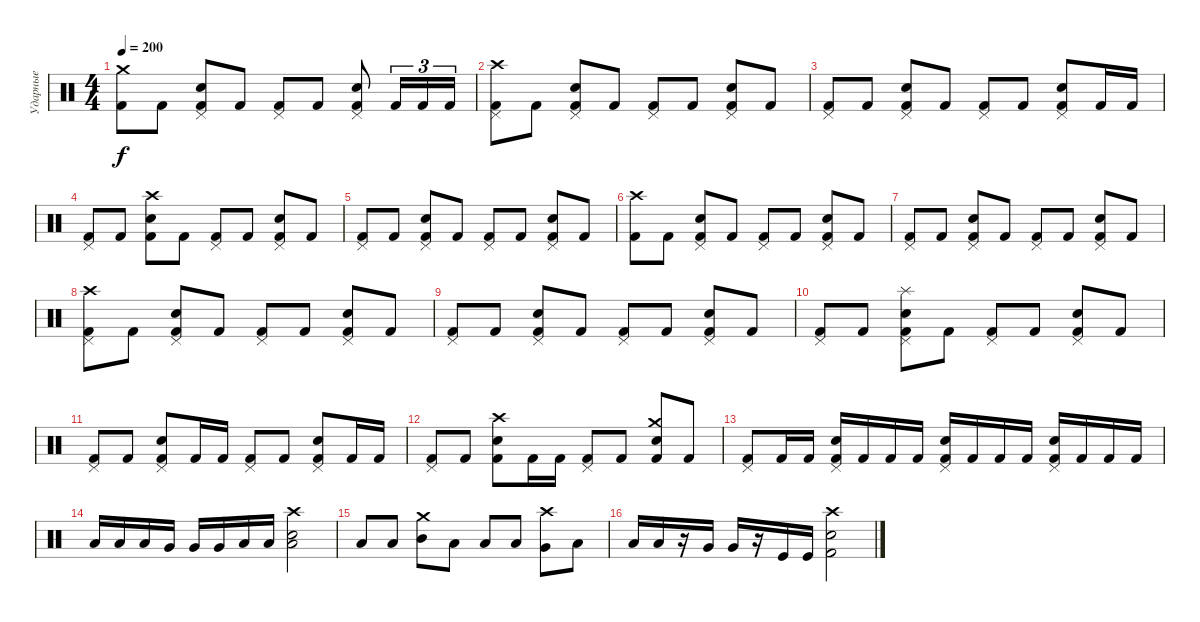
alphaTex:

\track ("Ударные" "Ударные") {instrument percussion}
\staff
\articulation defaults
\ts (4 4)
\tempo 200
\clef neutral
\ks c
("Kick (hit) 2" "Crash medium (hit)").8{dy f} "Kick (hit) 2".8 ("Snare (hit) 2" "Pedal Hi-Hat (hit)" "Kick (hit) 2").8 "Kick (hit) 2".8 ("Kick (hit) 2" "Pedal Hi-Hat (hit)").8 "Kick (hit) 2".8 ("Snare (hit) 2" "Pedal Hi-Hat (hit)" "Kick (hit) 2").8 "Kick (hit) 2".16{tu (3 2)} "Kick (hit) 2".16{tu (3 2)} "Kick (hit) 2".16{tu (3 2)} |
("Kick (hit) 2" "Pedal Hi-Hat (hit)" "Crash high (hit)").8 "Kick (hit) 2".8 ("Snare (hit) 2" "Pedal Hi-Hat (hit)" "Kick (hit) 2").8 "Kick (hit) 2".8 ("Kick (hit) 2" "Pedal Hi-Hat (hit)").8 "Kick (hit) 2".8 ("Snare (hit) 2" "Pedal Hi-Hat (hit)" "Kick (hit) 2").8 "Kick (hit) 2".8 |
("Kick (hit) 2" "Pedal Hi-Hat (hit)").8 "Kick (hit) 2".8 ("Snare (hit) 2" "Pedal Hi-Hat (hit)" "Kick (hit) 2").8 "Kick (hit) 2".8 ("Kick (hit) 2" "Pedal Hi-Hat (hit)").8 "Kick (hit) 2".8 ("Snare (hit) 2" "Pedal Hi-Hat (hit)" "Kick (hit) 2").8 "Kick (hit) 2".16 "Kick (hit) 2".16 |
("Kick (hit) 2" "Pedal Hi-Hat (hit)").8 "Kick (hit) 2".8 ("Snare (hit) 2" "Crash high (hit)" "Kick (hit) 2").8 "Kick (hit) 2".8 ("Kick (hit) 2" "Pedal Hi-Hat (hit)").8 "Kick (hit) 2".8 ("Snare (hit) 2" "Pedal Hi-Hat (hit)" "Kick (hit) 2").8 "Kick (hit) 2".8 |
("Kick (hit) 2" "Pedal Hi-Hat (hit)").8 "Kick (hit) 2".8 ("Snare (hit) 2" "Pedal Hi-Hat (hit)" "Kick (hit) 2").8 "Kick (hit) 2".8 ("Kick (hit) 2" "Pedal Hi-Hat (hit)").8 "Kick (hit) 2".8 ("Snare (hit) 2" "Pedal Hi-Hat (hit)" "Kick (hit) 2").8 "Kick (hit) 2".8 |
("Kick (hit) 2" "Crash high (hit)").8 "Kick (hit) 2".8 ("Snare (hit) 2" "Pedal Hi-Hat (hit)" "Kick (hit) 2").8 "Kick (hit) 2".8 ("Kick (hit) 2" "Pedal Hi-Hat (hit)").8 "Kick (hit) 2".8 ("Snare (hit) 2" "Pedal Hi-Hat (hit)" "Kick (hit) 2").8 "Kick (hit) 2".8 |
("Kick (hit) 2" "Pedal Hi-Hat (hit)").8 "Kick (hit) 2".8 ("Snare (hit) 2" "Pedal Hi-Hat (hit)" "Kick (hit) 2").8 "Kick (hit) 2".8 ("Kick (hit) 2" "Pedal Hi-Hat (hit)").8 "Kick (hit) 2".8 ("Snare (hit) 2" "Pedal Hi-Hat (hit)" "Kick (hit) 2").8 "Kick (hit) 2".8 |
("Kick (hit) 2" "Pedal Hi-Hat (hit)" "Crash high (hit)").8 "Kick (hit) 2".8 ("Snare (hit) 2" "Pedal Hi-Hat (hit)" "Kick (hit) 2").8 "Kick (hit) 2".8 ("Kick (hit) 2" "Pedal Hi-Hat (hit)").8 "Kick (hit) 2".8 ("Snare (hit) 2" "Pedal Hi-Hat (hit)" "Kick (hit) 2").8 "Kick (hit) 2".8 |
("Kick (hit) 2" "Pedal Hi-Hat (hit)").8 "Kick (hit) 2".8 ("Snare (hit) 2" "Pedal Hi-Hat (hit)" "Kick (hit) 2").8 "Kick (hit) 2".8 ("Kick (hit) 2" "Pedal Hi-Hat (hit)").8 "Kick (hit) 2".8 ("Snare (hit) 2" "Pedal Hi-Hat (hit)" "Kick (hit) 2").8 "Kick (hit) 2".8 |
("Kick (hit) 2" "Pedal Hi-Hat (hit)").8 "Kick (hit) 2".8 ("Snare (hit) 2" "Pedal Hi-Hat (hit)" "Kick (hit) 2" "Splash (hit)").8 "Kick (hit) 2".8 ("Kick (hit) 2" "Pedal Hi-Hat (hit)").8 "Kick (hit) 2".8 ("Snare (hit) 2" "Pedal Hi-Hat (hit)" "Kick (hit) 2").8 "Kick (hit) 2".8 |
("Kick (hit) 2" "Pedal Hi-Hat (hit)").8 "Kick (hit) 2".8 ("Snare (hit) 2" "Pedal Hi-Hat (hit)" "Kick (hit) 2").8 "Kick (hit) 2".16 "Kick (hit) 2".16 ("Kick (hit) 2" "Pedal Hi-Hat (hit)").8 "Kick (hit) 2".8 ("Snare (hit) 2" "Pedal Hi-Hat (hit)" "Kick (hit) 2").8 "Kick (hit) 2".16 "Kick (hit) 2".16 |
("Kick (hit) 2" "Pedal Hi-Hat (hit)").8 "Kick (hit) 2".8 ("Snare (hit) 2" "Crash high (hit)" "Kick (hit) 2").8 "Kick (hit) 2".16 "Kick (hit) 2".16 ("Kick (hit) 2" "Pedal Hi-Hat (hit)").8 "Kick (hit) 2".8 ("Snare (hit) 2" "Crash medium (hit)" "Kick (hit) 2").8 "Kick (hit) 2".8 |
("Kick (hit) 2" "Pedal Hi-Hat (hit)").8 "Kick (hit) 2".16 "Kick (hit) 2".16 ("Kick (hit) 2" "Pedal Hi-Hat (hit)" "Snare (hit) 2").16 "Kick (hit) 2".16 "Kick (hit) 2".16 "Kick (hit) 2".16 ("Kick (hit) 2" "Pedal Hi-Hat (hit)" "Snare (hit) 2").16 "Kick (hit) 2".16 "Kick (hit) 2".16 "Kick (hit) 2".16 ("Kick (hit) 2" "Pedal Hi-Hat (hit)" "Snare (hit) 2").16 "Kick (hit) 2".16 "Kick (hit) 2".16 "Kick (hit) 2".16 |
"Low Tom (hit)".16 "Low Tom (hit)".16 "Low Tom (hit)".16 "Very Low Tom (hit)".16 "Very Low Tom (hit)".16 "Very Low Tom (hit)".16 "Low Floor Tom (hit)".16 "Low Floor Tom (hit)".16 ("Low Floor Tom (hit)" "Crash high (hit)" "Snare (hit) 2").2 |
"Low Floor Tom (hit)".8 "Low Floor Tom (hit)".8 ("Mid Tom (hit)" "Crash medium (hit)").8 "Low Floor Tom (hit)".8 "Low Tom (hit)".8 "Low Floor Tom (hit)".8 ("Very Low Tom (hit)" "Crash high (hit)").8 "Low Floor Tom (hit)".8 |
"Low Tom (hit)".16 "Low Tom (hit)".16 r.16 "Very Low Tom (hit)".16 "Very Low Tom (hit)".16 r.16 "Kick (hit)".16 "Kick (hit)".16 ("Kick (hit) 2" "Crash high (hit)" "Snare (hit) 2").2
